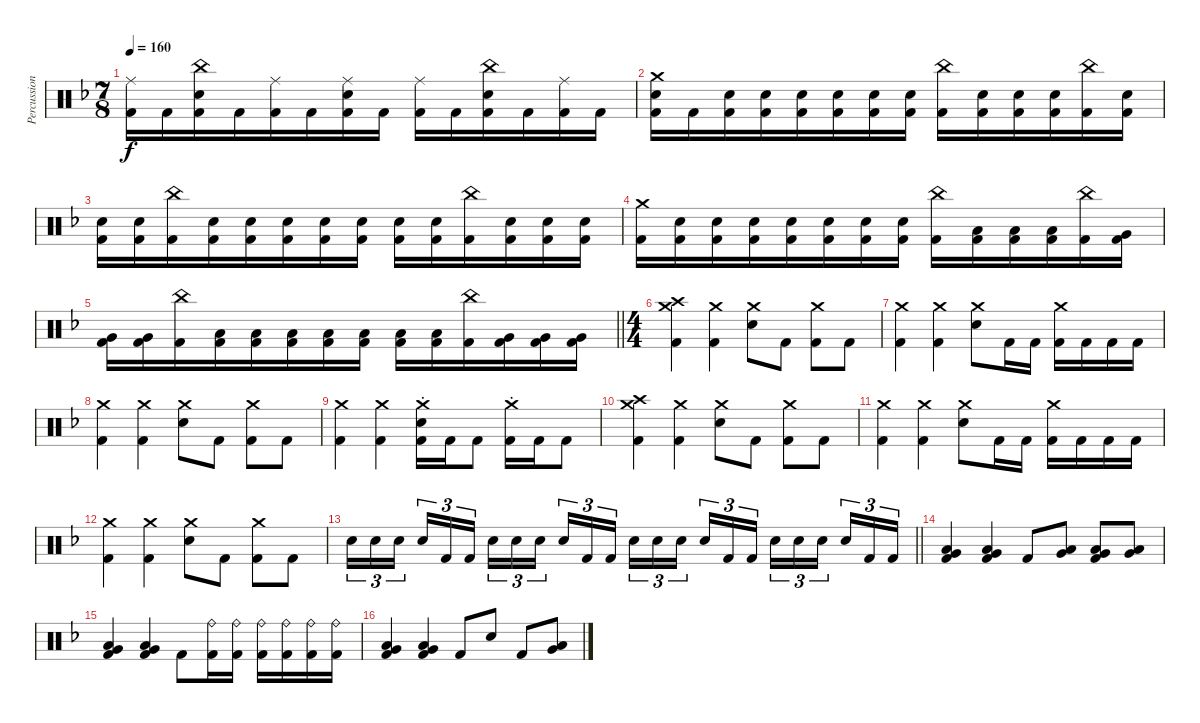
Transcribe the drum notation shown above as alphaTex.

\track ("Percussion" "Percussion") {instrument percussion}
\staff {score}
\articulation defaults
\ts (7 8)
\tempo 160
\clef neutral
\ks dminor
("Ride (middle)" "Kick (hit) 2").16{dy f} "Kick (hit) 2".16 ("China (hit)" "Electric Snare (hit)" "Kick (hit) 2").16 "Kick (hit) 2".16 ("Ride (middle)" "Kick (hit) 2").16 "Kick (hit) 2".16 ("Ride (middle)" "Electric Snare (hit)" "Kick (hit) 2").16 "Kick (hit) 2".16 ("Ride (middle)" "Kick (hit) 2").16 "Kick (hit) 2".16 ("China (hit)" "Electric Snare (hit)" "Kick (hit) 2").16 "Kick (hit) 2".16 ("Ride (middle)" "Kick (hit) 2").16 "Kick (hit) 2".16 |
("Crash medium (hit)" "Electric Snare (hit)" "Kick (hit) 2").16 "Kick (hit) 2".16 ("Electric Snare (hit)" "Kick (hit) 2").16 ("Electric Snare (hit)" "Kick (hit) 2").16 ("Electric Snare (hit)" "Kick (hit) 2").16 ("Electric Snare (hit)" "Kick (hit) 2").16 ("Electric Snare (hit)" "Kick (hit) 2").16 ("Electric Snare (hit)" "Kick (hit) 2").16 ("China (hit)" "Kick (hit) 2").16 ("Electric Snare (hit)" "Kick (hit) 2").16 ("Electric Snare (hit)" "Kick (hit) 2").16 ("Electric Snare (hit)" "Kick (hit) 2").16 ("China (hit)" "Kick (hit) 2").16 ("Electric Snare (hit)" "Kick (hit) 2").16 |
("Electric Snare (hit)" "Kick (hit) 2").16 ("Electric Snare (hit)" "Kick (hit) 2").16 ("China (hit)" "Kick (hit) 2").16 ("Electric Snare (hit)" "Kick (hit) 2").16 ("Electric Snare (hit)" "Kick (hit) 2").16 ("Electric Snare (hit)" "Kick (hit) 2").16 ("Electric Snare (hit)" "Kick (hit) 2").16 ("Electric Snare (hit)" "Kick (hit) 2").16 ("Electric Snare (hit)" "Kick (hit) 2").16 ("Electric Snare (hit)" "Kick (hit) 2").16 ("China (hit)" "Kick (hit) 2").16 ("Electric Snare (hit)" "Kick (hit) 2").16 ("Electric Snare (hit)" "Kick (hit) 2").16 ("Electric Snare (hit)" "Kick (hit) 2").16 |
("Crash medium (hit)" "Kick (hit) 2").16 ("Electric Snare (hit)" "Kick (hit) 2").16 ("Electric Snare (hit)" "Kick (hit) 2").16 ("Electric Snare (hit)" "Kick (hit) 2").16 ("Electric Snare (hit)" "Kick (hit) 2").16 ("Electric Snare (hit)" "Kick (hit) 2").16 ("Electric Snare (hit)" "Kick (hit) 2").16 ("Electric Snare (hit)" "Kick (hit) 2").16 ("China (hit)" "Kick (hit) 2").16 ("Low Tom (hit)" "Kick (hit) 2").16 ("Low Tom (hit)" "Kick (hit) 2").16 ("Low Tom (hit)" "Kick (hit) 2").16 ("China (hit)" "Kick (hit) 2").16 ("Very Low Tom (hit)" "Kick (hit) 2").16 |
\barLineRight lightlight
("Very Low Tom (hit)" "Kick (hit) 2").16 ("Very Low Tom (hit)" "Kick (hit) 2").16 ("China (hit)" "Kick (hit) 2").16 ("Low Floor Tom (hit)" "Kick (hit) 2").16 ("Low Floor Tom (hit)" "Kick (hit) 2").16 ("Low Floor Tom (hit)" "Kick (hit) 2").16 ("Low Floor Tom (hit)" "Kick (hit) 2").16 ("Low Floor Tom (hit)" "Kick (hit) 2").16 ("Low Floor Tom (hit)" "Kick (hit) 2").16 ("Low Floor Tom (hit)" "Kick (hit) 2").16 ("China (hit)" "Kick (hit) 2").16 ("Very Low Tom (hit)" "Kick (hit) 2").16 ("Very Low Tom (hit)" "Kick (hit) 2").16 ("Very Low Tom (hit)" "Kick (hit) 2").16 |
\ts (4 4)
("Crash medium (hit)" "Crash high (hit)" "Kick (hit) 2").4 ("Crash medium (hit)" "Kick (hit) 2").4 ("Crash medium (hit)" "Electric Snare (hit)").8 "Kick (hit) 2".8 ("Crash medium (hit)" "Kick (hit) 2").8 "Kick (hit) 2".8 |
("Crash medium (hit)" "Kick (hit) 2").4 ("Crash medium (hit)" "Kick (hit) 2").4 ("Crash medium (hit)" "Electric Snare (hit)").8 "Kick (hit) 2".16 "Kick (hit) 2".16 ("Crash medium (hit)" "Kick (hit) 2").16 "Kick (hit) 2".16 "Kick (hit) 2".16 "Kick (hit) 2".16 |
("Crash medium (hit)" "Kick (hit) 2").4 ("Crash medium (hit)" "Kick (hit) 2").4 ("Crash medium (hit)" "Electric Snare (hit)").8 "Kick (hit) 2".8 ("Crash medium (hit)" "Kick (hit) 2").8 "Kick (hit) 2".8 |
("Crash medium (hit)" "Kick (hit) 2").4 ("Crash medium (hit)" "Kick (hit) 2").4 ("Crash medium (hit)"{st} "Electric Snare (hit)" "Kick (hit) 2").16 "Kick (hit) 2".16 "Kick (hit) 2".8 ("Crash medium (hit)"{st} "Kick (hit) 2").16 "Kick (hit) 2".16 "Kick (hit) 2".8 |
("Crash medium (hit)" "Crash high (hit)" "Kick (hit) 2").4 ("Crash medium (hit)" "Kick (hit) 2").4 ("Crash medium (hit)" "Electric Snare (hit)").8 "Kick (hit) 2".8 ("Crash medium (hit)" "Kick (hit) 2").8 "Kick (hit) 2".8 |
("Crash medium (hit)" "Kick (hit) 2").4 ("Crash medium (hit)" "Kick (hit) 2").4 ("Crash medium (hit)" "Electric Snare (hit)").8 "Kick (hit) 2".16 "Kick (hit) 2".16 ("Crash medium (hit)" "Kick (hit) 2").16 "Kick (hit) 2".16 "Kick (hit) 2".16 "Kick (hit) 2".16 |
("Crash medium (hit)" "Kick (hit) 2").4 ("Crash medium (hit)" "Kick (hit) 2").4 ("Crash medium (hit)" "Electric Snare (hit)").8 "Kick (hit) 2".8 ("Crash medium (hit)" "Kick (hit) 2").8 "Kick (hit) 2".8 |
\barLineRight lightlight "Electric Snare (hit)".16{tu (3 2)} "Electric Snare (hit)".16{tu (3 2)} "Electric Snare (hit)".16{tu (3 2) beam splitsecondary} "Electric Snare (hit)".16{tu (3 2)} "Kick (hit) 2".16{tu (3 2)} "Kick (hit) 2".16{tu (3 2)} "Electric Snare (hit)".16{tu (3 2)} "Electric Snare (hit)".16{tu (3 2)} "Electric Snare (hit)".16{tu (3 2) beam splitsecondary} "Electric Snare (hit)".16{tu (3 2)} "Kick (hit) 2".16{tu (3 2)} "Kick (hit) 2".16{tu (3 2)} "Electric Snare (hit)".16{tu (3 2)} "Electric Snare (hit)".16{tu (3 2)} "Electric Snare (hit)".16{tu (3 2) beam splitsecondary} "Electric Snare (hit)".16{tu (3 2)} "Kick (hit) 2".16{tu (3 2)} "Kick (hit) 2".16{tu (3 2)} "Electric Snare (hit)".16{tu (3 2)} "Electric Snare (hit)".16{tu (3 2)} "Electric Snare (hit)".16{tu (3 2) beam splitsecondary} "Electric Snare (hit)".16{tu (3 2)} "Kick (hit) 2".16{tu (3 2)} "Kick (hit) 2".16{tu (3 2)}
|
("Very Low Tom (hit)" "Low Floor Tom (hit)" "Kick (hit) 2").4 ("Very Low Tom (hit)" "Low Floor Tom (hit)" "Kick (hit) 2").4 "Kick (hit) 2".8 ("Very Low Tom (hit)" "Low Floor Tom (hit)").8 ("Very Low Tom (hit)" "Low Floor Tom (hit)" "Kick (hit) 2").8 ("Very Low Tom (hit)" "Low Floor Tom (hit)").8 |
("Very Low Tom (hit)" "Low Floor Tom (hit)" "Kick (hit) 2").4 ("Very Low Tom (hit)" "Low Floor Tom (hit)" "Kick (hit) 2").4 "Kick (hit) 2".8 ("Ride (bell)" "Kick (hit) 2").16 ("Ride (bell)" "Kick (hit) 2").16 ("Ride (bell)" "Kick (hit) 2").16 ("Ride (bell)" "Kick (hit) 2").16 ("Ride (bell)" "Kick (hit) 2").16 ("Ride (bell)" "Kick (hit) 2").16 |
("Very Low Tom (hit)" "Low Floor Tom (hit)" "Kick (hit) 2").4 ("Very Low Tom (hit)" "Low Floor Tom (hit)" "Kick (hit) 2").4 "Kick (hit) 2".8 "Electric Snare (hit)".8 "Kick (hit) 2".8 ("Low Tom (hit)" "Very Low Tom (hit)").8
